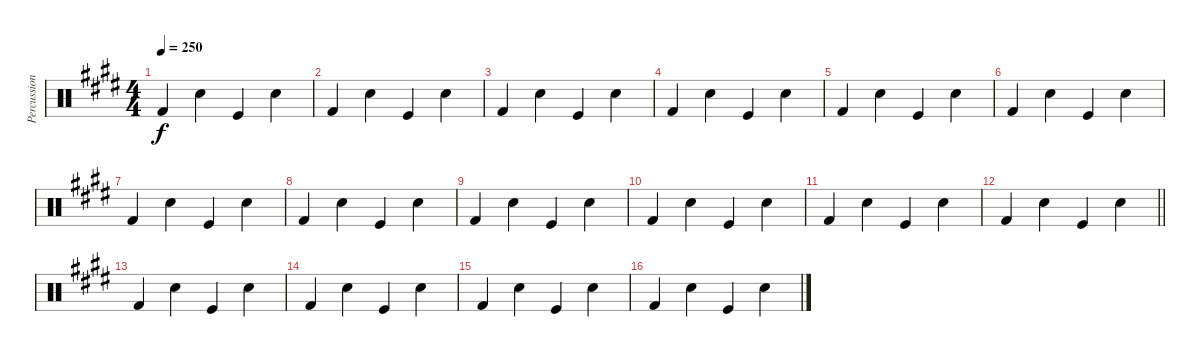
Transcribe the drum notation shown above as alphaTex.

\track ("Percussion" "Percussion") {instrument percussion}
\staff {score}
\articulation defaults
\ts (4 4)
\tempo 250
\clef neutral
\ks e "Kick (hit) 2".4{dy f} "Snare (hit) 2".4 "Kick (hit)".4 "Snare (hit) 2".4
|
"Kick (hit) 2".4 "Snare (hit) 2".4 "Kick (hit)".4 "Snare (hit) 2".4 |
"Kick (hit) 2".4 "Snare (hit) 2".4 "Kick (hit)".4 "Snare (hit) 2".4 |
"Kick (hit) 2".4 "Snare (hit) 2".4 "Kick (hit)".4 "Snare (hit) 2".4 |
"Kick (hit) 2".4 "Snare (hit) 2".4 "Kick (hit)".4 "Snare (hit) 2".4 |
"Kick (hit) 2".4 "Snare (hit) 2".4 "Kick (hit)".4 "Snare (hit) 2".4 |
"Kick (hit) 2".4 "Snare (hit) 2".4 "Kick (hit)".4 "Snare (hit) 2".4 |
"Kick (hit) 2".4 "Snare (hit) 2".4 "Kick (hit)".4 "Snare (hit) 2".4 |
"Kick (hit) 2".4 "Snare (hit) 2".4 "Kick (hit)".4 "Snare (hit) 2".4 |
"Kick (hit) 2".4 "Snare (hit) 2".4 "Kick (hit)".4 "Snare (hit) 2".4 |
"Kick (hit) 2".4 "Snare (hit) 2".4 "Kick (hit)".4 "Snare (hit) 2".4 |
\barLineRight lightlight "Kick (hit) 2".4 "Snare (hit) 2".4 "Kick (hit)".4 "Snare (hit) 2".4
|
"Kick (hit) 2".4 "Snare (hit) 2".4 "Kick (hit)".4 "Snare (hit) 2".4 |
"Kick (hit) 2".4 "Snare (hit) 2".4 "Kick (hit)".4 "Snare (hit) 2".4 |
"Kick (hit) 2".4 "Snare (hit) 2".4 "Kick (hit)".4 "Snare (hit) 2".4 |
"Kick (hit) 2".4 "Snare (hit) 2".4 "Kick (hit)".4 "Snare (hit) 2".4
